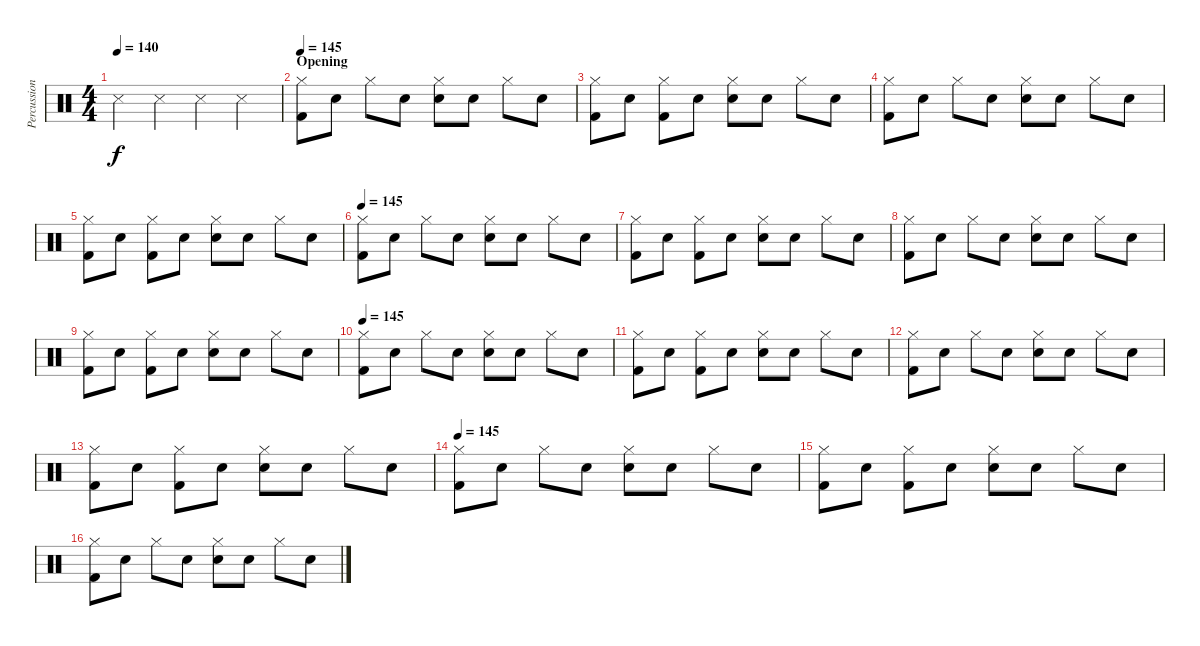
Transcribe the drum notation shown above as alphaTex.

\track ("Percussion" "Percussion") {instrument percussion}
\staff {score}
\articulation defaults
\ts (4 4)
\tempo 140
\tempo 75
\tempo 140
\clef neutral
\ks c "Snare (side stick) 3".4{dy f} "Snare (side stick) 3".4 "Snare (side stick) 3".4 "Snare (side stick) 3".4
|
\section ("" "Opening")
\tempo 145
("Hi-Hat (closed)" "Kick (hit) 2").8 "Snare (hit)"{x}.8 "Hi-Hat (closed)".8 "Snare (hit)"{x}.8 ("Hi-Hat (closed)" "Electric Snare (hit)").8 "Snare (hit)"{x}.8 "Hi-Hat (closed)".8 "Snare (hit)"{x}.8 |
("Hi-Hat (closed)" "Kick (hit) 2").8 "Snare (hit)"{x}.8 ("Hi-Hat (closed)" "Kick (hit) 2").8 "Snare (hit)"{x}.8 ("Hi-Hat (closed)" "Electric Snare (hit)").8 "Snare (hit)"{x}.8 "Hi-Hat (closed)".8 "Snare (hit)"{x}.8 |
("Hi-Hat (closed)" "Kick (hit) 2").8 "Snare (hit)"{x}.8 "Hi-Hat (closed)".8 "Snare (hit)"{x}.8 ("Hi-Hat (closed)" "Electric Snare (hit)").8 "Snare (hit)"{x}.8 "Hi-Hat (closed)".8 "Snare (hit)"{x}.8 |
("Hi-Hat (closed)" "Kick (hit) 2").8 "Snare (hit)"{x}.8 ("Hi-Hat (closed)" "Kick (hit) 2").8 "Snare (hit)"{x}.8 ("Hi-Hat (closed)" "Electric Snare (hit)").8 "Snare (hit)"{x}.8 "Hi-Hat (closed)".8 "Snare (hit)"{x}.8 |
\tempo 145
("Hi-Hat (closed)" "Kick (hit) 2").8 "Snare (hit)"{x}.8 "Hi-Hat (closed)".8 "Snare (hit)"{x}.8 ("Hi-Hat (closed)" "Electric Snare (hit)").8 "Snare (hit)"{x}.8 "Hi-Hat (closed)".8 "Snare (hit)"{x}.8 |
("Hi-Hat (closed)" "Kick (hit) 2").8 "Snare (hit)"{x}.8 ("Hi-Hat (closed)" "Kick (hit) 2").8 "Snare (hit)"{x}.8 ("Hi-Hat (closed)" "Electric Snare (hit)").8 "Snare (hit)"{x}.8 "Hi-Hat (closed)".8 "Snare (hit)"{x}.8 |
("Hi-Hat (closed)" "Kick (hit) 2").8 "Snare (hit)"{x}.8 "Hi-Hat (closed)".8 "Snare (hit)"{x}.8 ("Hi-Hat (closed)" "Electric Snare (hit)").8 "Snare (hit)"{x}.8 "Hi-Hat (closed)".8 "Snare (hit)"{x}.8 |
("Hi-Hat (closed)" "Kick (hit) 2").8 "Snare (hit)"{x}.8 ("Hi-Hat (closed)" "Kick (hit) 2").8 "Snare (hit)"{x}.8 ("Hi-Hat (closed)" "Electric Snare (hit)").8 "Snare (hit)"{x}.8 "Hi-Hat (closed)".8 "Snare (hit)"{x}.8 |
\tempo 145
("Hi-Hat (closed)" "Kick (hit) 2").8 "Snare (hit)"{x}.8 "Hi-Hat (closed)".8 "Snare (hit)"{x}.8 ("Hi-Hat (closed)" "Electric Snare (hit)").8 "Snare (hit)"{x}.8 "Hi-Hat (closed)".8 "Snare (hit)"{x}.8 |
("Hi-Hat (closed)" "Kick (hit) 2").8 "Snare (hit)"{x}.8 ("Hi-Hat (closed)" "Kick (hit) 2").8 "Snare (hit)"{x}.8 ("Hi-Hat (closed)" "Electric Snare (hit)").8 "Snare (hit)"{x}.8 "Hi-Hat (closed)".8 "Snare (hit)"{x}.8 |
("Hi-Hat (closed)" "Kick (hit) 2").8 "Snare (hit)"{x}.8 "Hi-Hat (closed)".8 "Snare (hit)"{x}.8 ("Hi-Hat (closed)" "Electric Snare (hit)").8 "Snare (hit)"{x}.8 "Hi-Hat (closed)".8 "Snare (hit)"{x}.8 |
("Hi-Hat (closed)" "Kick (hit) 2").8 "Snare (hit)"{x}.8 ("Hi-Hat (closed)" "Kick (hit) 2").8 "Snare (hit)"{x}.8 ("Hi-Hat (closed)" "Electric Snare (hit)").8 "Snare (hit)"{x}.8 "Hi-Hat (closed)".8 "Snare (hit)"{x}.8 |
\tempo 145
("Hi-Hat (closed)" "Kick (hit) 2").8 "Snare (hit)"{x}.8 "Hi-Hat (closed)".8 "Snare (hit)"{x}.8 ("Hi-Hat (closed)" "Electric Snare (hit)").8 "Snare (hit)"{x}.8 "Hi-Hat (closed)".8 "Snare (hit)"{x}.8 |
("Hi-Hat (closed)" "Kick (hit) 2").8 "Snare (hit)"{x}.8 ("Hi-Hat (closed)" "Kick (hit) 2").8 "Snare (hit)"{x}.8 ("Hi-Hat (closed)" "Electric Snare (hit)").8 "Snare (hit)"{x}.8 "Hi-Hat (closed)".8 "Snare (hit)"{x}.8 |
("Hi-Hat (closed)" "Kick (hit) 2").8 "Snare (hit)"{x}.8 "Hi-Hat (closed)".8 "Snare (hit)"{x}.8 ("Hi-Hat (closed)" "Electric Snare (hit)").8 "Snare (hit)"{x}.8 "Hi-Hat (closed)".8 "Snare (hit)"{x}.8
